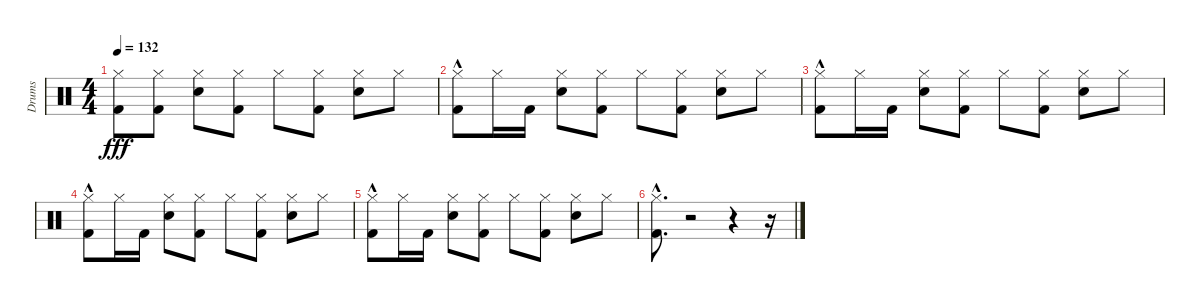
\track ("Drums" "Drums") {instrument percussion}
\staff {score}
\articulation defaults
\ts (4 4)
\tempo 132
\clef neutral
\ks c
("Hi-Hat (closed)" "Kick (hit) 2").8{dy fff} ("Hi-Hat (closed)" "Kick (hit) 2").8 ("Hi-Hat (closed)" "Electric Snare (hit)").8 ("Hi-Hat (closed)" "Kick (hit) 2").8 "Hi-Hat (closed)".8 ("Hi-Hat (closed)" "Kick (hit) 2").8 ("Hi-Hat (closed)" "Electric Snare (hit)").8 "Hi-Hat (closed)".8 |
("Hi-Hat (closed)" "Kick (hit) 2"{hac}).8 "Hi-Hat (closed)".16 "Kick (hit) 2".16 ("Hi-Hat (closed)" "Electric Snare (hit)").8 ("Hi-Hat (closed)" "Kick (hit) 2").8 "Hi-Hat (closed)".8 ("Hi-Hat (closed)" "Kick (hit) 2").8 ("Hi-Hat (closed)" "Electric Snare (hit)").8 "Hi-Hat (closed)".8 |
("Kick (hit) 2"{hac} "Hi-Hat (closed)").8 "Hi-Hat (closed)".16 "Kick (hit) 2".16 ("Electric Snare (hit)" "Hi-Hat (closed)").8 ("Kick (hit) 2" "Hi-Hat (closed)").8 "Hi-Hat (closed)".8 ("Kick (hit) 2" "Hi-Hat (closed)").8 ("Electric Snare (hit)" "Hi-Hat (closed)").8 "Hi-Hat (closed)".8 |
("Hi-Hat (closed)" "Kick (hit) 2"{hac}).8 "Hi-Hat (closed)".16 "Kick (hit) 2".16 ("Hi-Hat (closed)" "Electric Snare (hit)").8 ("Hi-Hat (closed)" "Kick (hit) 2").8 "Hi-Hat (closed)".8 ("Kick (hit) 2" "Hi-Hat (closed)").8 ("Hi-Hat (closed)" "Electric Snare (hit)").8 "Hi-Hat (closed)".8 |
("Hi-Hat (closed)" "Kick (hit) 2"{hac}).8 "Hi-Hat (closed)".16 "Kick (hit) 2".16 ("Hi-Hat (closed)" "Electric Snare (hit)").8 ("Hi-Hat (closed)" "Kick (hit) 2").8 "Hi-Hat (closed)".8 ("Kick (hit) 2" "Hi-Hat (closed)").8 ("Hi-Hat (closed)" "Electric Snare (hit)").8 "Hi-Hat (closed)".8 |
("Hi-Hat (closed)" "Kick (hit) 2"{hac}).8{d} r.2 r.4 r.16
